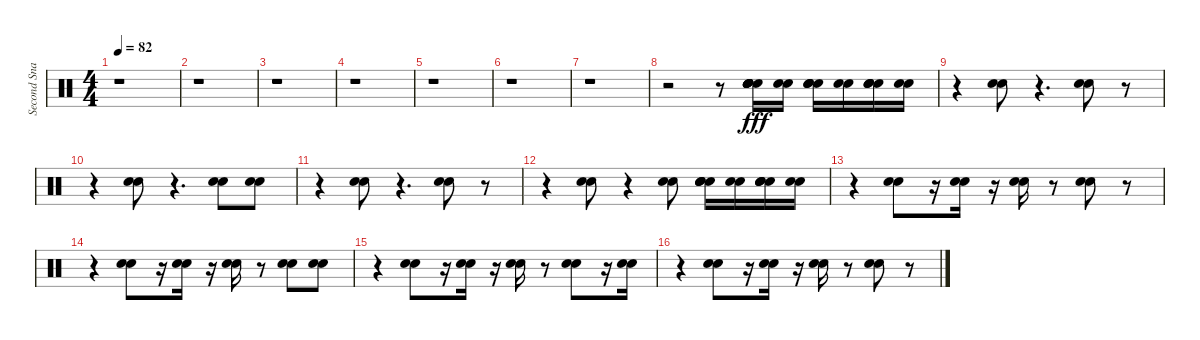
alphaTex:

\track ("Second Snare" "Second Sna") {instrument percussion}
\staff {score}
\articulation defaults
\ts (4 4)
\tempo 82
\clef neutral
\ks c
r.1{dy fff} |
r.1 |
r.1 |
r.1 |
r.1 |
r.1 |
r.1 |
r.2 r.8 ("Snare (hit) 2" "Snare (hit) 2" "Snare (hit) 2" "Electric Snare (hit)" "Electric Snare (hit)" "Electric Snare (hit)").16 ("Snare (hit) 2" "Electric Snare (hit)").16 ("Snare (hit) 2" "Snare (hit) 2" "Electric Snare (hit)" "Electric Snare (hit)").16 ("Snare (hit) 2" "Electric Snare (hit)").16 ("Snare (hit) 2" "Snare (hit) 2" "Electric Snare (hit)" "Electric Snare (hit)").16 ("Snare (hit) 2" "Electric Snare (hit)").16 |
r.4 ("Snare (hit) 2" "Electric Snare (hit)").8 r.4{d} ("Snare (hit) 2" "Electric Snare (hit)").8 r.8 |
r.4 ("Snare (hit) 2" "Electric Snare (hit)").8 r.4{d} ("Snare (hit) 2" "Electric Snare (hit)").8 ("Snare (hit) 2" "Electric Snare (hit)").8 |
r.4 ("Snare (hit) 2" "Electric Snare (hit)").8 r.4{d} ("Snare (hit) 2" "Electric Snare (hit)").8 r.8 |
r.4 ("Snare (hit) 2" "Electric Snare (hit)").8 r.4 ("Snare (hit) 2" "Electric Snare (hit)").8 ("Snare (hit) 2" "Snare (hit) 2" "Electric Snare (hit)" "Electric Snare (hit)").16 ("Snare (hit) 2" "Electric Snare (hit)").16 ("Snare (hit) 2" "Snare (hit) 2" "Electric Snare (hit)" "Electric Snare (hit)").16 ("Snare (hit) 2" "Electric Snare (hit)").16 |
r.4 ("Snare (hit) 2" "Electric Snare (hit)").8 r.16 ("Snare (hit) 2" "Electric Snare (hit)").16 r.16 ("Snare (hit) 2" "Electric Snare (hit)").16 r.8 ("Snare (hit) 2" "Electric Snare (hit)").8 r.8 |
r.4 ("Snare (hit) 2" "Electric Snare (hit)").8 r.16 ("Snare (hit) 2" "Electric Snare (hit)").16 r.16 ("Snare (hit) 2" "Electric Snare (hit)").16 r.8 ("Snare (hit) 2" "Electric Snare (hit)").8 ("Electric Snare (hit)" "Snare (hit) 2").8 |
r.4 ("Snare (hit) 2" "Electric Snare (hit)").8 r.16 ("Snare (hit) 2" "Electric Snare (hit)").16 r.16 ("Snare (hit) 2" "Electric Snare (hit)").16 r.8 ("Snare (hit) 2" "Electric Snare (hit)").8 r.16 ("Snare (hit) 2" "Electric Snare (hit)").16 |
r.4 ("Snare (hit) 2" "Electric Snare (hit)").8 r.16 ("Snare (hit) 2" "Electric Snare (hit)").16 r.16 ("Snare (hit) 2" "Electric Snare (hit)").16 r.8 ("Snare (hit) 2" "Electric Snare (hit)").8 r.8
